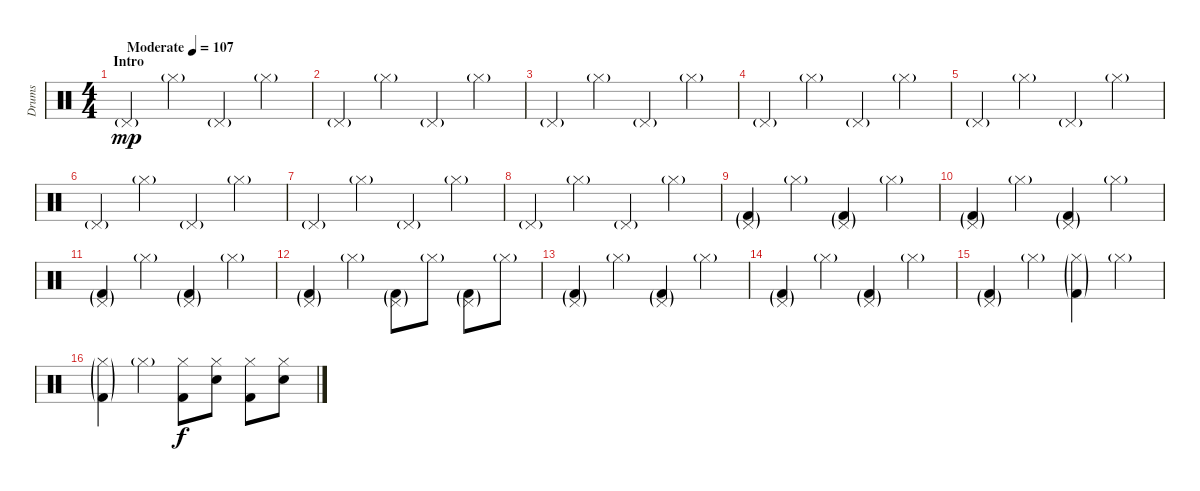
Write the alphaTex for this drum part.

\track ("Drums" "Drums") {instrument percussion}
\staff {score}
\articulation defaults
\ts (4 4)
\section ("" "Intro")
\tempo (107 "Moderate")
\clef neutral
\ks c "Pedal Hi-Hat (hit)"{g}.4{dy mp volume 10} "Hi-Hat (closed)"{g}.4 "Pedal Hi-Hat (hit)"{g}.4 "Hi-Hat (closed)"{g}.4
|
"Pedal Hi-Hat (hit)"{g}.4 "Hi-Hat (closed)"{g}.4 "Pedal Hi-Hat (hit)"{g}.4 "Hi-Hat (closed)"{g}.4 |
"Pedal Hi-Hat (hit)"{g}.4 "Hi-Hat (closed)"{g}.4 "Pedal Hi-Hat (hit)"{g}.4 "Hi-Hat (closed)"{g}.4 |
"Pedal Hi-Hat (hit)"{g}.4 "Hi-Hat (closed)"{g}.4 "Pedal Hi-Hat (hit)"{g}.4 "Hi-Hat (closed)"{g}.4 |
"Pedal Hi-Hat (hit)"{g}.4 "Hi-Hat (closed)"{g}.4 "Pedal Hi-Hat (hit)"{g}.4 "Hi-Hat (closed)"{g}.4 |
"Pedal Hi-Hat (hit)"{g}.4 "Hi-Hat (closed)"{g}.4 "Pedal Hi-Hat (hit)"{g}.4 "Hi-Hat (closed)"{g}.4 |
"Pedal Hi-Hat (hit)"{g}.4 "Hi-Hat (closed)"{g}.4 "Pedal Hi-Hat (hit)"{g}.4 "Hi-Hat (closed)"{g}.4 |
"Pedal Hi-Hat (hit)"{g}.4 "Hi-Hat (closed)"{g}.4 "Pedal Hi-Hat (hit)"{g}.4 "Hi-Hat (closed)"{g}.4 |
("Pedal Hi-Hat (hit)"{g} "Kick (hit) 2"{g}).4 "Hi-Hat (closed)"{g}.4 ("Pedal Hi-Hat (hit)"{g} "Kick (hit) 2"{g}).4 "Hi-Hat (closed)"{g}.4 |
("Pedal Hi-Hat (hit)"{g} "Kick (hit) 2"{g}).4 "Hi-Hat (closed)"{g}.4 ("Pedal Hi-Hat (hit)"{g} "Kick (hit) 2"{g}).4 "Hi-Hat (closed)"{g}.4 |
("Pedal Hi-Hat (hit)"{g} "Kick (hit) 2"{g}).4 "Hi-Hat (closed)"{g}.4 ("Pedal Hi-Hat (hit)"{g} "Kick (hit) 2"{g}).4 "Hi-Hat (closed)"{g}.4 |
("Pedal Hi-Hat (hit)"{g} "Kick (hit) 2"{g}).4 "Hi-Hat (closed)"{g}.4 ("Pedal Hi-Hat (hit)"{g} "Kick (hit) 2"{g}).8 "Hi-Hat (closed)"{g}.8 ("Pedal Hi-Hat (hit)"{g} "Kick (hit) 2"{g}).8 "Hi-Hat (closed)"{g}.8 |
("Pedal Hi-Hat (hit)"{g} "Kick (hit) 2"{g}).4 "Hi-Hat (closed)"{g}.4 ("Pedal Hi-Hat (hit)"{g} "Kick (hit) 2"{g}).4 "Hi-Hat (closed)"{g}.4 |
("Pedal Hi-Hat (hit)"{g} "Kick (hit) 2"{g}).4 "Hi-Hat (closed)"{g}.4 ("Pedal Hi-Hat (hit)"{g} "Kick (hit) 2"{g}).4 "Hi-Hat (closed)"{g}.4 |
("Pedal Hi-Hat (hit)"{g} "Kick (hit) 2"{g}).4 "Hi-Hat (closed)"{g}.4 ("Hi-Hat (closed)"{g} "Kick (hit) 2"{g}).4 "Hi-Hat (closed)"{g}.4 |
("Hi-Hat (closed)"{g} "Kick (hit) 2"{g}).4 "Hi-Hat (closed)"{g}.4 ("Hi-Hat (closed)" "Kick (hit) 2").8{dy f volume 16} ("Hi-Hat (closed)" "Snare (hit) 2").8 ("Hi-Hat (closed)" "Kick (hit) 2").8 ("Hi-Hat (closed)" "Snare (hit) 2").8
